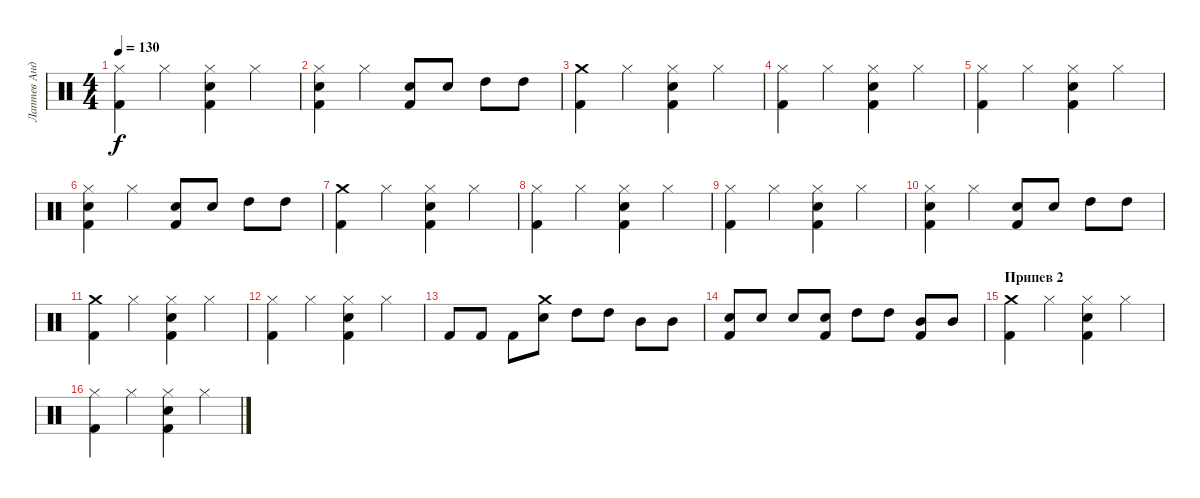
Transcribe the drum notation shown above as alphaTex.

\track ("Лаптев Андрей" "Лаптев Анд") {instrument percussion}
\staff {score}
\articulation defaults
\ts (4 4)
\tempo 130
\clef neutral
\ks c
("Hi-Hat (closed)" "Kick (hit) 2").4{dy f} "Hi-Hat (closed)".4 ("Kick (hit) 2" "Electric Snare (hit)" "Hi-Hat (closed)").4 "Hi-Hat (closed)".4 |
("Hi-Hat (closed)" "Kick (hit) 2" "Electric Snare (hit)").4 "Hi-Hat (closed)".4 ("Kick (hit) 2" "Electric Snare (hit)").8 "Electric Snare (hit)".8 "High Tom (hit)".8 "High Tom (hit)".8 |
("Crash medium (hit)" "Kick (hit) 2").4 "Hi-Hat (closed)".4 ("Kick (hit) 2" "Electric Snare (hit)" "Hi-Hat (closed)").4 "Hi-Hat (closed)".4 |
("Hi-Hat (closed)" "Kick (hit) 2").4 "Hi-Hat (closed)".4 ("Kick (hit) 2" "Electric Snare (hit)" "Hi-Hat (closed)").4 "Hi-Hat (closed)".4 |
("Hi-Hat (closed)" "Kick (hit) 2").4 "Hi-Hat (closed)".4 ("Kick (hit) 2" "Electric Snare (hit)" "Hi-Hat (closed)").4 "Hi-Hat (closed)".4 |
("Hi-Hat (closed)" "Kick (hit) 2" "Electric Snare (hit)").4 "Hi-Hat (closed)".4 ("Kick (hit) 2" "Electric Snare (hit)").8 "Electric Snare (hit)".8 "High Tom (hit)".8 "High Tom (hit)".8 |
("Crash medium (hit)" "Kick (hit) 2").4 "Hi-Hat (closed)".4 ("Kick (hit) 2" "Electric Snare (hit)" "Hi-Hat (closed)").4 "Hi-Hat (closed)".4 |
("Hi-Hat (closed)" "Kick (hit) 2").4 "Hi-Hat (closed)".4 ("Kick (hit) 2" "Electric Snare (hit)" "Hi-Hat (closed)").4 "Hi-Hat (closed)".4 |
("Hi-Hat (closed)" "Kick (hit) 2").4 "Hi-Hat (closed)".4 ("Kick (hit) 2" "Electric Snare (hit)" "Hi-Hat (closed)").4 "Hi-Hat (closed)".4 |
("Hi-Hat (closed)" "Kick (hit) 2" "Electric Snare (hit)").4 "Hi-Hat (closed)".4 ("Kick (hit) 2" "Electric Snare (hit)").8 "Electric Snare (hit)".8 "High Tom (hit)".8 "High Tom (hit)".8 |
("Crash medium (hit)" "Kick (hit) 2").4 "Hi-Hat (closed)".4 ("Kick (hit) 2" "Electric Snare (hit)" "Hi-Hat (closed)").4 "Hi-Hat (closed)".4 |
("Hi-Hat (closed)" "Kick (hit) 2").4 "Hi-Hat (closed)".4 ("Kick (hit) 2" "Electric Snare (hit)" "Hi-Hat (closed)").4 "Hi-Hat (closed)".4 |
"Kick (hit) 2".8 "Kick (hit) 2".8 "Kick (hit) 2".8 ("Electric Snare (hit)" "Crash medium (hit)").8 "High Tom (hit)".8 "High Tom (hit)".8 "Mid Tom (hit)".8 "Mid Tom (hit)".8 |
("Electric Snare (hit)" "Kick (hit) 2").8 "Electric Snare (hit)".8 "Electric Snare (hit)".8 ("Electric Snare (hit)" "Kick (hit) 2").8 "High Tom (hit)".8 "High Tom (hit)".8 ("Mid Tom (hit)" "Kick (hit) 2").8 "Mid Tom (hit)".8 |
\section ("" "Припев 2")
("Crash medium (hit)" "Kick (hit) 2").4 "Hi-Hat (closed)".4 ("Kick (hit) 2" "Electric Snare (hit)" "Hi-Hat (closed)").4 "Hi-Hat (closed)".4 |
("Hi-Hat (closed)" "Kick (hit) 2").4 "Hi-Hat (closed)".4 ("Kick (hit) 2" "Electric Snare (hit)" "Hi-Hat (closed)").4 "Hi-Hat (closed)".4
